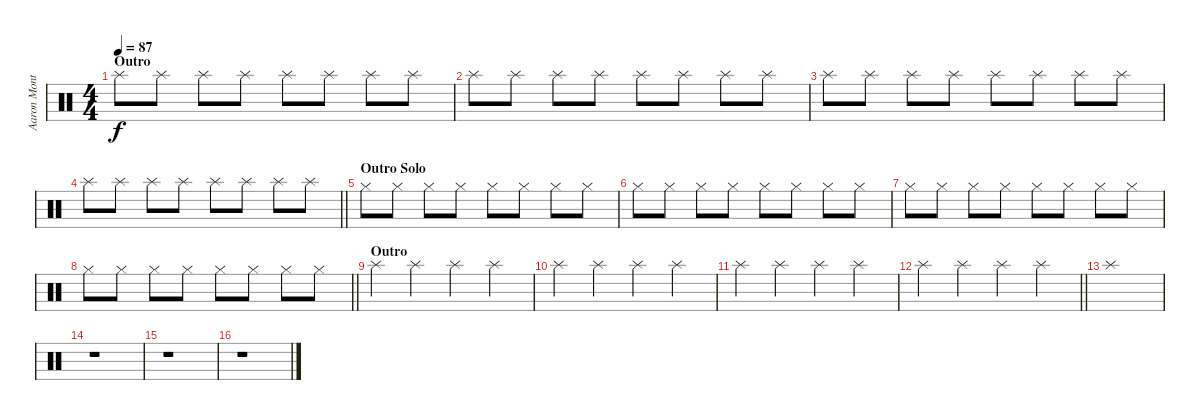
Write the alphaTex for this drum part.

\track ("Aaron Montgomery (Drums)" "Aaron Mont") {instrument percussion}
\staff {score}
\articulation defaults
\ts (4 4)
\section ("" "Outro")
\tempo 87
\clef neutral
\ks c "Splash (hit)".8{dy f} "Splash (hit)".8 "Splash (hit)".8 "Splash (hit)".8 "Splash (hit)".8 "Splash (hit)".8 "Splash (hit)".8 "Splash (hit)".8
|
"Splash (hit)".8 "Splash (hit)".8 "Splash (hit)".8 "Splash (hit)".8 "Splash (hit)".8 "Splash (hit)".8 "Splash (hit)".8 "Splash (hit)".8 |
"Splash (hit)".8 "Splash (hit)".8 "Splash (hit)".8 "Splash (hit)".8 "Splash (hit)".8 "Splash (hit)".8 "Splash (hit)".8 "Splash (hit)".8 |
\barLineRight lightlight "Splash (hit)".8 "Splash (hit)".8 "Splash (hit)".8 "Splash (hit)".8 "Splash (hit)".8 "Splash (hit)".8 "Splash (hit)".8 "Splash (hit)".8
|
\section ("" "Outro Solo")
"Hi-Hat (closed)".8 "Hi-Hat (closed)".8 "Hi-Hat (closed)".8 "Hi-Hat (closed)".8 "Hi-Hat (closed)".8 "Hi-Hat (closed)".8 "Hi-Hat (closed)".8 "Hi-Hat (closed)".8 |
"Hi-Hat (closed)".8 "Hi-Hat (closed)".8 "Hi-Hat (closed)".8 "Hi-Hat (closed)".8 "Hi-Hat (closed)".8 "Hi-Hat (closed)".8 "Hi-Hat (closed)".8 "Hi-Hat (closed)".8 |
"Hi-Hat (closed)".8 "Hi-Hat (closed)".8 "Hi-Hat (closed)".8 "Hi-Hat (closed)".8 "Hi-Hat (closed)".8 "Hi-Hat (closed)".8 "Hi-Hat (closed)".8 "Hi-Hat (closed)".8 |
\barLineRight lightlight "Hi-Hat (closed)".8 "Hi-Hat (closed)".8 "Hi-Hat (closed)".8 "Hi-Hat (closed)".8 "Hi-Hat (closed)".8 "Hi-Hat (closed)".8 "Hi-Hat (closed)".8 "Hi-Hat (closed)".8
|
\section ("" "Outro")
"Splash (hit)".4 "Splash (hit)".4 "Splash (hit)".4 "Splash (hit)".4 |
"Splash (hit)".4 "Splash (hit)".4 "Splash (hit)".4 "Splash (hit)".4 |
"Splash (hit)".4 "Splash (hit)".4 "Splash (hit)".4 "Splash (hit)".4 |
\barLineRight lightlight "Splash (hit)".4 "Splash (hit)".4 "Splash (hit)".4 "Splash (hit)".4
|
"Splash (hit)".1 |
r.1 |
r.1 |
r.1
